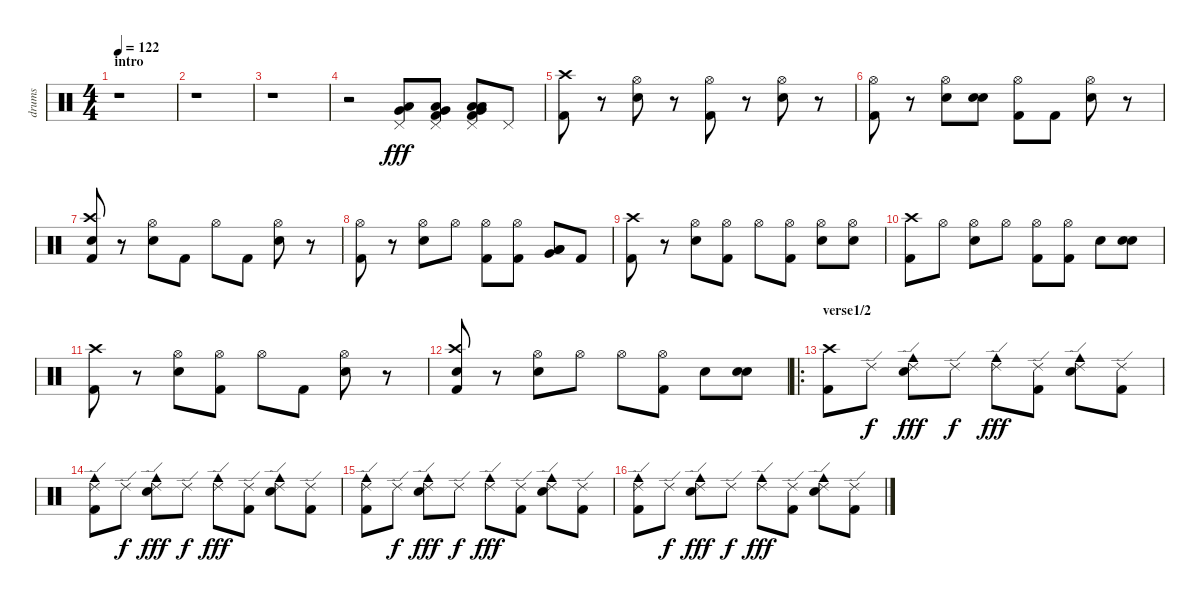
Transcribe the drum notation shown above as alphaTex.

\track ("drums" "drums") {instrument percussion}
\staff {score}
\articulation defaults
\ts (4 4)
\section ("" "intro")
\tempo 122
\clef neutral
\ks c
r.1{dy fff} |
r.1 |
r.1 |
r.2 ("Pedal Hi-Hat (hit)" "Low Tom (hit)" "Very Low Tom (hit)").8 ("Low Floor Tom (hit)" "Kick (hit) 2" "Pedal Hi-Hat (hit)" "Very Low Tom (hit)").8 ("Low Tom (hit)" "Pedal Hi-Hat (hit)" "Very Low Tom (hit)" "Low Floor Tom (hit)" "Kick (hit) 2").8 "Pedal Hi-Hat (hit)".8 |
("Crash high (hit)" "Kick (hit) 2").8 r.8 ("Hi-Hat (open)" "Electric Snare (hit)").8 r.8 ("Kick (hit) 2" "Hi-Hat (open)").8 r.8 ("Electric Snare (hit)" "Hi-Hat (open)").8 r.8 |
("Kick (hit) 2" "Hi-Hat (open)").8 r.8 ("Electric Snare (hit)" "Hi-Hat (open)").8 ("Electric Snare (hit)" "Electric Snare (hit)").8 ("Hi-Hat (open)" "Kick (hit) 2").8 "Kick (hit) 2".8 ("Hi-Hat (open)" "Electric Snare (hit)").8 r.8 |
("Electric Snare (hit)" "Kick (hit) 2" "Crash high (hit)").8 r.8 ("Electric Snare (hit)" "Hi-Hat (open)").8 "Kick (hit) 2".8 "Hi-Hat (open)".8 "Kick (hit) 2".8 ("Hi-Hat (open)" "Electric Snare (hit)").8 r.8 |
("Hi-Hat (open)" "Kick (hit) 2").8 r.8 ("Electric Snare (hit)" "Hi-Hat (open)").8 "Hi-Hat (open)".8 ("Kick (hit) 2" "Hi-Hat (open)").8 ("Hi-Hat (open)" "Kick (hit) 2").8 ("Low Tom (hit)" "Low Tom (hit)" "Very Low Tom (hit)").8 "Kick (hit) 2".8 |
("Crash high (hit)" "Kick (hit) 2").8 r.8 ("Hi-Hat (open)" "Electric Snare (hit)").8 ("Kick (hit) 2" "Hi-Hat (open)").8 "Hi-Hat (open)".8 ("Hi-Hat (open)" "Kick (hit) 2").8 ("Electric Snare (hit)" "Hi-Hat (open)").8 ("Hi-Hat (open)" "Electric Snare (hit)").8 |
("Crash high (hit)" "Kick (hit) 2").8 "Hi-Hat (open)".8 ("Electric Snare (hit)" "Hi-Hat (open)").8 "Hi-Hat (open)".8 ("Kick (hit) 2" "Hi-Hat (open)").8 ("Kick (hit) 2" "Hi-Hat (open)").8 "Electric Snare (hit)".8 ("Electric Snare (hit)" "Electric Snare (hit)").8 |
("Kick (hit) 2" "Crash high (hit)").8 r.8 ("Hi-Hat (open)" "Electric Snare (hit)").8 ("Kick (hit) 2" "Hi-Hat (open)").8 "Hi-Hat (open)".8 "Kick (hit) 2".8 ("Hi-Hat (open)" "Electric Snare (hit)").8 r.8 |
("Electric Snare (hit)" "Crash high (hit)" "Kick (hit) 2").8 r.8 ("Electric Snare (hit)" "Hi-Hat (open)").8 "Hi-Hat (open)".8 "Hi-Hat (open)".8 ("Hi-Hat (open)" "Kick (hit) 2").8 "Electric Snare (hit)".8 ("Electric Snare (hit)" "Electric Snare (hit)").8 |
\ro
\section ("" "verse1/2")
("Kick (hit) 2" "Crash high (hit)").8 "Ride (edge) 2".8{dy f} ("Cowbell medium (hit)" "Electric Snare (hit)" "Ride (edge) 2").8{dy fff} "Ride (edge) 2".8{dy f} ("Cowbell medium (hit)" "Ride (edge) 2").8{dy fff} ("Ride (edge) 2" "Kick (hit) 2").8 ("Cowbell medium (hit)" "Electric Snare (hit)" "Ride (edge) 2").8 ("Ride (edge) 2" "Kick (hit) 2").8 |
("Ride (edge) 2" "Kick (hit) 2" "Cowbell medium (hit)").8 "Ride (edge) 2".8{dy f} ("Ride (edge) 2" "Electric Snare (hit)" "Cowbell medium (hit)").8{dy fff} "Ride (edge) 2".8{dy f} ("Ride (edge) 2" "Cowbell medium (hit)").8{dy fff} ("Kick (hit) 2" "Ride (edge) 2").8 ("Electric Snare (hit)" "Cowbell medium (hit)" "Ride (edge) 2").8 ("Ride (edge) 2" "Kick (hit) 2").8 |
("Kick (hit) 2" "Cowbell medium (hit)" "Ride (edge) 2").8 "Ride (edge) 2".8{dy f} ("Ride (edge) 2" "Electric Snare (hit)" "Cowbell medium (hit)").8{dy fff} "Ride (edge) 2".8{dy f} ("Ride (edge) 2" "Cowbell medium (hit)").8{dy fff} ("Kick (hit) 2" "Ride (edge) 2").8 ("Cowbell medium (hit)" "Electric Snare (hit)" "Ride (edge) 2").8 ("Ride (edge) 2" "Kick (hit) 2").8 |
("Kick (hit) 2" "Cowbell medium (hit)" "Ride (edge) 2").8 "Ride (edge) 2".8{dy f} ("Ride (edge) 2" "Cowbell medium (hit)" "Electric Snare (hit)").8{dy fff} "Ride (edge) 2".8{dy f} ("Cowbell medium (hit)" "Ride (edge) 2").8{dy fff} ("Kick (hit) 2" "Ride (edge) 2").8 ("Ride (edge) 2" "Electric Snare (hit)" "Cowbell medium (hit)").8 ("Kick (hit) 2" "Ride (edge) 2").8
